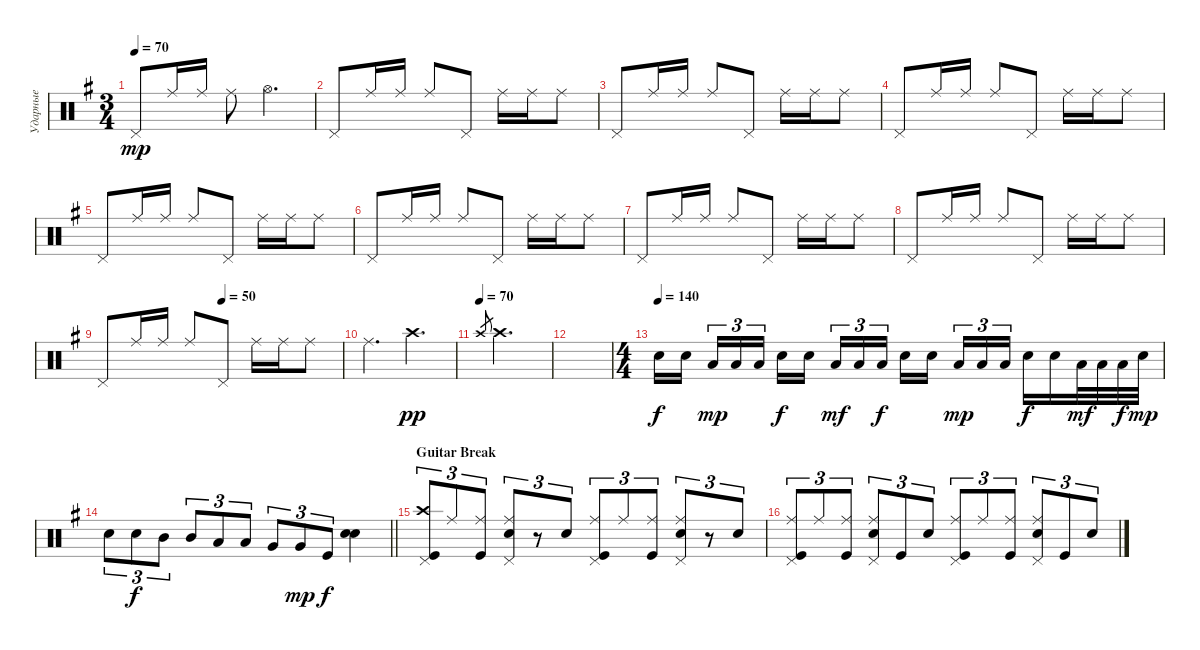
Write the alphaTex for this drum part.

\track ("Ударные" "Ударные") {instrument percussion}
\staff {score}
\articulation defaults
\ts (3 4)
\tempo 70
\clef neutral
\ks eminor "Pedal Hi-Hat (hit)".8{dy mp} "Ride (middle)".16 "Ride (middle)".16 "Ride (middle)".8 "Hi-Hat (open)".4{d}
|
"Pedal Hi-Hat (hit)".8 "Ride (middle)".16 "Ride (middle)".16 "Ride (middle)".8 "Pedal Hi-Hat (hit)".8 "Ride (middle)".16 "Ride (middle)".16 "Ride (middle)".8 |
"Pedal Hi-Hat (hit)".8 "Ride (middle)".16 "Ride (middle)".16 "Ride (middle)".8 "Pedal Hi-Hat (hit)".8 "Ride (middle)".16 "Ride (middle)".16 "Ride (middle)".8 |
"Pedal Hi-Hat (hit)".8 "Ride (middle)".16 "Ride (middle)".16 "Ride (middle)".8 "Pedal Hi-Hat (hit)".8 "Ride (middle)".16 "Ride (middle)".16 "Ride (middle)".8 |
"Pedal Hi-Hat (hit)".8 "Ride (middle)".16 "Ride (middle)".16 "Ride (middle)".8 "Pedal Hi-Hat (hit)".8 "Ride (middle)".16 "Ride (middle)".16 "Ride (middle)".8 |
"Pedal Hi-Hat (hit)".8 "Ride (middle)".16 "Ride (middle)".16 "Ride (middle)".8 "Pedal Hi-Hat (hit)".8 "Ride (middle)".16 "Ride (middle)".16 "Ride (middle)".8 |
"Pedal Hi-Hat (hit)".8 "Ride (middle)".16 "Ride (middle)".16 "Ride (middle)".8 "Pedal Hi-Hat (hit)".8 "Ride (middle)".16 "Ride (middle)".16 "Ride (middle)".8 |
"Pedal Hi-Hat (hit)".8 "Ride (middle)".16 "Ride (middle)".16 "Ride (middle)".8 "Pedal Hi-Hat (hit)".8 "Ride (middle)".16 "Ride (middle)".16 "Ride (middle)".8 |
\tempo (50 0.5)
"Pedal Hi-Hat (hit)".8 "Ride (middle)".16 "Ride (middle)".16 "Ride (middle)".8 "Pedal Hi-Hat (hit)".8 "Ride (middle)".16 "Ride (middle)".16 "Ride (middle)".8 |
"Ride (middle)".4{d} "Crash high (hit)".4{d dy pp} |
\tempo (70)
"Crash high (hit)".8{gr} "Crash high (hit)".2{d} |
|
\ts (4 4)
\tempo 70
\tempo (140)
"Snare (hit) 2".16{dy f} "Snare (hit) 2".16{beam splitsecondary} "Low Tom (hit)".16{tu (3 2) dy mp} "Low Tom (hit)".16{tu (3 2)} "Low Tom (hit)".16{tu (3 2)} "Snare (hit) 2".16{dy f} "Snare (hit) 2".16{beam splitsecondary} "Low Tom (hit)".16{tu (3 2) dy mf} "Low Tom (hit)".16{tu (3 2)} "Low Tom (hit)".16{tu (3 2) dy f} "Snare (hit) 2".16 "Snare (hit) 2".16{beam splitsecondary} "Low Tom (hit)".16{tu (3 2) dy mp} "Low Tom (hit)".16{tu (3 2)} "Low Tom (hit)".16{tu (3 2)} "Snare (hit) 2".16{dy f} "Snare (hit) 2".16 "Low Tom (hit)".32{dy mf} "Low Tom (hit)".32 "Low Tom (hit)".32{dy f} "Snare (hit) 2".32{dy mp} |
\barLineRight lightlight "Snare (hit) 2".8{tu (3 2)} "Snare (hit) 2".8{tu (3 2) dy f} "Mid Tom (hit)".8{tu (3 2)} "Mid Tom (hit)".8{tu (3 2)} "Low Tom (hit)".8{tu (3 2)} "Low Tom (hit)".8{tu (3 2)} "Very Low Tom (hit)".8{tu (3 2)} "Very Low Tom (hit)".8{tu (3 2) dy mp} "Kick (hit)".8{tu (3 2) dy f}
("Snare (hit) 2" "Snare (hit) 2").4{bd 240} |
\section ("" "Guitar Break")
("Kick (hit)" "Crash high (hit)" "Pedal Hi-Hat (hit)").8{tu (3 2)} "Ride (middle)".8{tu (3 2)} ("Kick (hit)" "Ride (middle)").8{tu (3 2)} ("Snare (hit) 2" "Ride (middle)" "Pedal Hi-Hat (hit)").8{tu (3 2)} r.8{tu (3 2)} "Snare (hit) 2".8{tu (3 2)} ("Kick (hit)" "Ride (middle)" "Pedal Hi-Hat (hit)").8{tu (3 2)} "Ride (middle)".8{tu (3 2)} ("Kick (hit)" "Ride (middle)").8{tu (3 2)} ("Snare (hit) 2" "Ride (middle)" "Pedal Hi-Hat (hit)").8{tu (3 2)} r.8{tu (3 2)} "Snare (hit) 2".8{tu (3 2)} |
("Kick (hit)" "Ride (middle)" "Pedal Hi-Hat (hit)").8{tu (3 2)} "Ride (middle)".8{tu (3 2)} ("Kick (hit)" "Ride (middle)").8{tu (3 2)} ("Snare (hit) 2" "Ride (middle)" "Pedal Hi-Hat (hit)").8{tu (3 2)} "Kick (hit)".8{tu (3 2)} "Snare (hit) 2".8{tu (3 2)} ("Kick (hit)" "Ride (middle)" "Pedal Hi-Hat (hit)").8{tu (3 2)} "Ride (middle)".8{tu (3 2)} ("Kick (hit)" "Ride (middle)").8{tu (3 2)} ("Snare (hit) 2" "Ride (middle)" "Pedal Hi-Hat (hit)").8{tu (3 2)} "Kick (hit)".8{tu (3 2)} "Snare (hit) 2".8{tu (3 2)}
